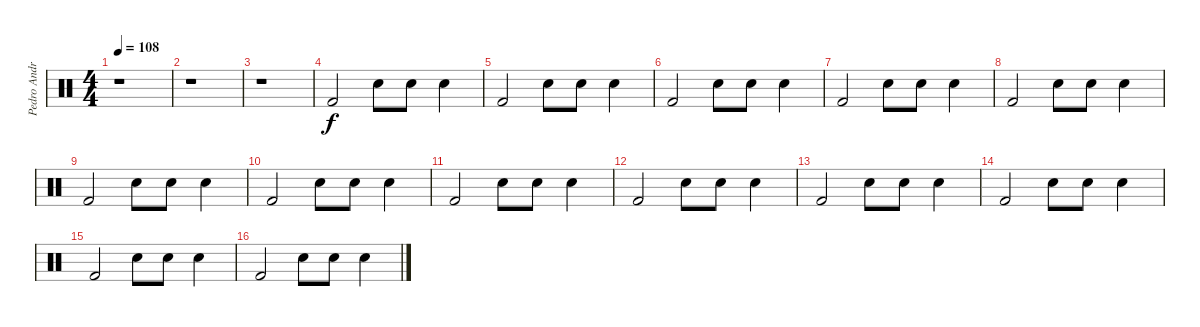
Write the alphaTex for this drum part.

\track ("Pedro Andreu" "Pedro Andr") {instrument percussion}
\staff {score}
\articulation defaults
\ts (4 4)
\tempo 108
\clef neutral
\ks c
r.1{dy f} |
r.1 |
r.1 |
"Kick (hit) 2".2 "Snare (hit) 2".8 "Snare (hit) 2".8 "Snare (hit) 2".4 |
"Kick (hit) 2".2 "Snare (hit) 2".8 "Snare (hit) 2".8 "Snare (hit) 2".4 |
"Kick (hit) 2".2 "Snare (hit) 2".8 "Snare (hit) 2".8 "Snare (hit) 2".4 |
"Kick (hit) 2".2 "Snare (hit) 2".8 "Snare (hit) 2".8 "Snare (hit) 2".4 |
"Kick (hit) 2".2 "Snare (hit) 2".8 "Snare (hit) 2".8 "Snare (hit) 2".4 |
"Kick (hit) 2".2 "Snare (hit) 2".8 "Snare (hit) 2".8 "Snare (hit) 2".4 |
"Kick (hit) 2".2 "Snare (hit) 2".8 "Snare (hit) 2".8 "Snare (hit) 2".4 |
"Kick (hit) 2".2 "Snare (hit) 2".8 "Snare (hit) 2".8 "Snare (hit) 2".4 |
"Kick (hit) 2".2 "Snare (hit) 2".8 "Snare (hit) 2".8 "Snare (hit) 2".4 |
"Kick (hit) 2".2 "Snare (hit) 2".8 "Snare (hit) 2".8 "Snare (hit) 2".4 |
"Kick (hit) 2".2 "Snare (hit) 2".8 "Snare (hit) 2".8 "Snare (hit) 2".4 |
"Kick (hit) 2".2 "Snare (hit) 2".8 "Snare (hit) 2".8 "Snare (hit) 2".4 |
"Kick (hit) 2".2 "Snare (hit) 2".8 "Snare (hit) 2".8 "Snare (hit) 2".4
